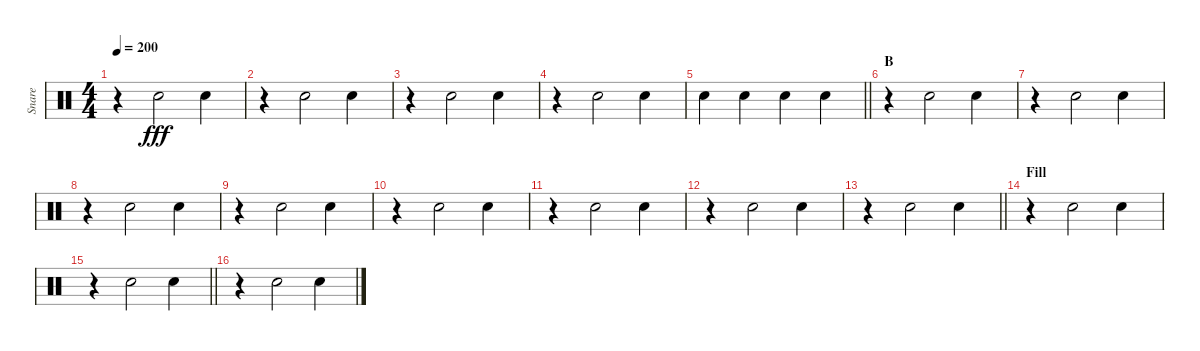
\track ("Snare" "Snare") {instrument percussion}
\staff {score}
\articulation defaults
\ts (4 4)
\tempo 200
\clef neutral
\ks c
r.4{dy fff} "Snare (hit) 2".2 "Snare (hit) 2".4 |
r.4 "Snare (hit) 2".2 "Snare (hit) 2".4 |
r.4 "Snare (hit) 2".2 "Snare (hit) 2".4 |
r.4 "Snare (hit) 2".2 "Snare (hit) 2".4 |
\barLineRight lightlight "Snare (hit) 2".4 "Snare (hit) 2".4 "Snare (hit) 2".4 "Snare (hit) 2".4
|
\section ("" "B")
r.4 "Snare (hit) 2".2 "Snare (hit) 2".4 |
r.4 "Snare (hit) 2".2 "Snare (hit) 2".4 |
r.4 "Snare (hit) 2".2 "Snare (hit) 2".4 |
r.4 "Snare (hit) 2".2 "Snare (hit) 2".4 |
r.4 "Snare (hit) 2".2 "Snare (hit) 2".4 |
r.4 "Snare (hit) 2".2 "Snare (hit) 2".4 |
r.4 "Snare (hit) 2".2 "Snare (hit) 2".4 |
\barLineRight lightlight
r.4 "Snare (hit) 2".2 "Snare (hit) 2".4 |
\section ("" "Fill")
r.4 "Snare (hit) 2".2 "Snare (hit) 2".4 |
\barLineRight lightlight
r.4 "Snare (hit) 2".2 "Snare (hit) 2".4 |
r.4 "Snare (hit) 2".2 "Snare (hit) 2".4
